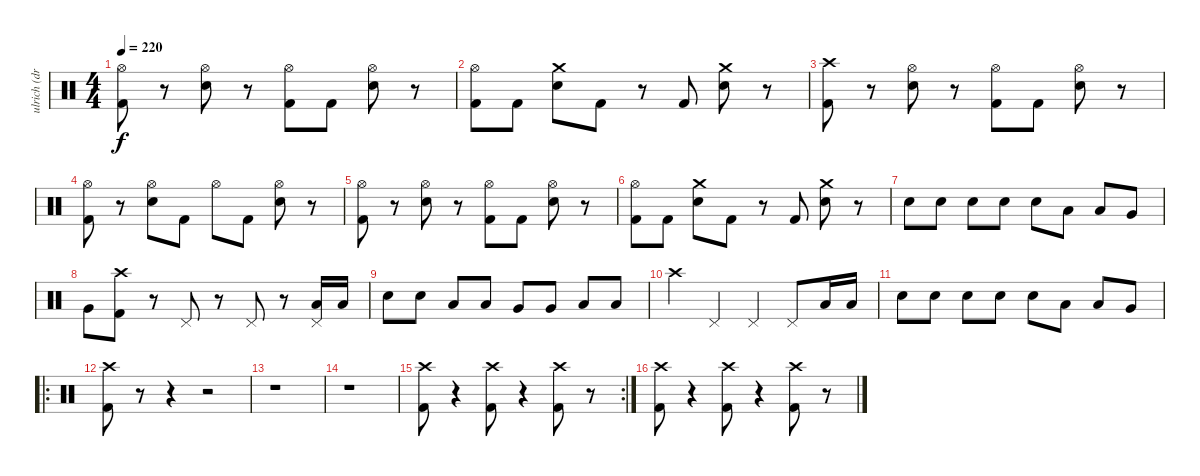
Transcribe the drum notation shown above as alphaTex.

\track ("ulrich (drums)" "ulrich (dr") {instrument percussion}
\staff {score}
\articulation defaults
\ts (4 4)
\tempo 220
\clef neutral
\ks c
("Hi-Hat (open)" "Kick (hit) 2").8{dy f} r.8 ("Hi-Hat (open)" "Snare (hit) 2").8 r.8 ("Hi-Hat (open)" "Kick (hit) 2").8 "Kick (hit) 2".8 ("Hi-Hat (open)" "Snare (hit) 2").8 r.8 |
("Hi-Hat (open)" "Kick (hit) 2").8 "Kick (hit) 2".8 ("Crash medium (hit)" "Snare (hit) 2").8 "Kick (hit) 2".8 r.8 "Kick (hit) 2".8 ("Crash medium (hit)" "Snare (hit) 2").8 r.8 |
("Crash high (hit)" "Kick (hit) 2").8 r.8 ("Hi-Hat (open)" "Snare (hit) 2").8 r.8 ("Hi-Hat (open)" "Kick (hit) 2").8 "Kick (hit) 2".8 ("Hi-Hat (open)" "Snare (hit) 2").8 r.8 |
("Hi-Hat (open)" "Kick (hit) 2").8 r.8 ("Hi-Hat (open)" "Snare (hit) 2").8 "Kick (hit) 2".8 "Hi-Hat (open)".8 "Kick (hit) 2".8 ("Hi-Hat (open)" "Snare (hit) 2").8 r.8 |
("Hi-Hat (open)" "Kick (hit) 2").8 r.8 ("Hi-Hat (open)" "Snare (hit) 2").8 r.8 ("Hi-Hat (open)" "Kick (hit) 2").8 "Kick (hit) 2".8 ("Hi-Hat (open)" "Snare (hit) 2").8 r.8 |
("Hi-Hat (open)" "Kick (hit) 2").8 "Kick (hit) 2".8 ("Crash medium (hit)" "Snare (hit) 2").8 "Kick (hit) 2".8 r.8 "Kick (hit) 2".8 ("Crash medium (hit)" "Snare (hit) 2").8 r.8 |
"Snare (hit) 2".8 "Snare (hit) 2".8 "Snare (hit) 2".8 "Snare (hit) 2".8 "Snare (hit) 2".8 "Low Tom (hit)".8 "Low Tom (hit)".8 "Very Low Tom (hit)".8 |
"Very Low Tom (hit)".8 ("Crash high (hit)" "Kick (hit) 2").8 r.8 "Pedal Hi-Hat (hit)".8 r.8 "Pedal Hi-Hat (hit)".8 r.8 ("Pedal Hi-Hat (hit)" "Low Tom (hit)").16 "Low Tom (hit)".16 |
"Snare (hit) 2".8 "Snare (hit) 2".8 "Low Tom (hit)".8 "Low Tom (hit)".8 "Very Low Tom (hit)".8 "Very Low Tom (hit)".8 "Low Floor Tom (hit)".8 "Low Floor Tom (hit)".8 |
"Crash high (hit)".4 "Pedal Hi-Hat (hit)".4 "Pedal Hi-Hat (hit)".4 "Pedal Hi-Hat (hit)".8 "Low Tom (hit)".16 "Low Tom (hit)".16 |
"Snare (hit) 2".8 "Snare (hit) 2".8 "Snare (hit) 2".8 "Snare (hit) 2".8 "Snare (hit) 2".8 "Low Tom (hit)".8 "Low Tom (hit)".8 "Very Low Tom (hit)".8 |
\ro
("Crash high (hit)" "Kick (hit) 2").8 r.8 r.4 r.2 |
r.1 |
r.1 |
\rc 2
("Crash high (hit)" "Kick (hit) 2").8 r.4 ("Crash high (hit)" "Kick (hit) 2").8 r.4 ("Crash high (hit)" "Kick (hit) 2").8 r.8 |
("Crash high (hit)" "Kick (hit) 2").8 r.4 ("Crash high (hit)" "Kick (hit) 2").8 r.4 ("Crash high (hit)" "Kick (hit) 2").8 r.8
